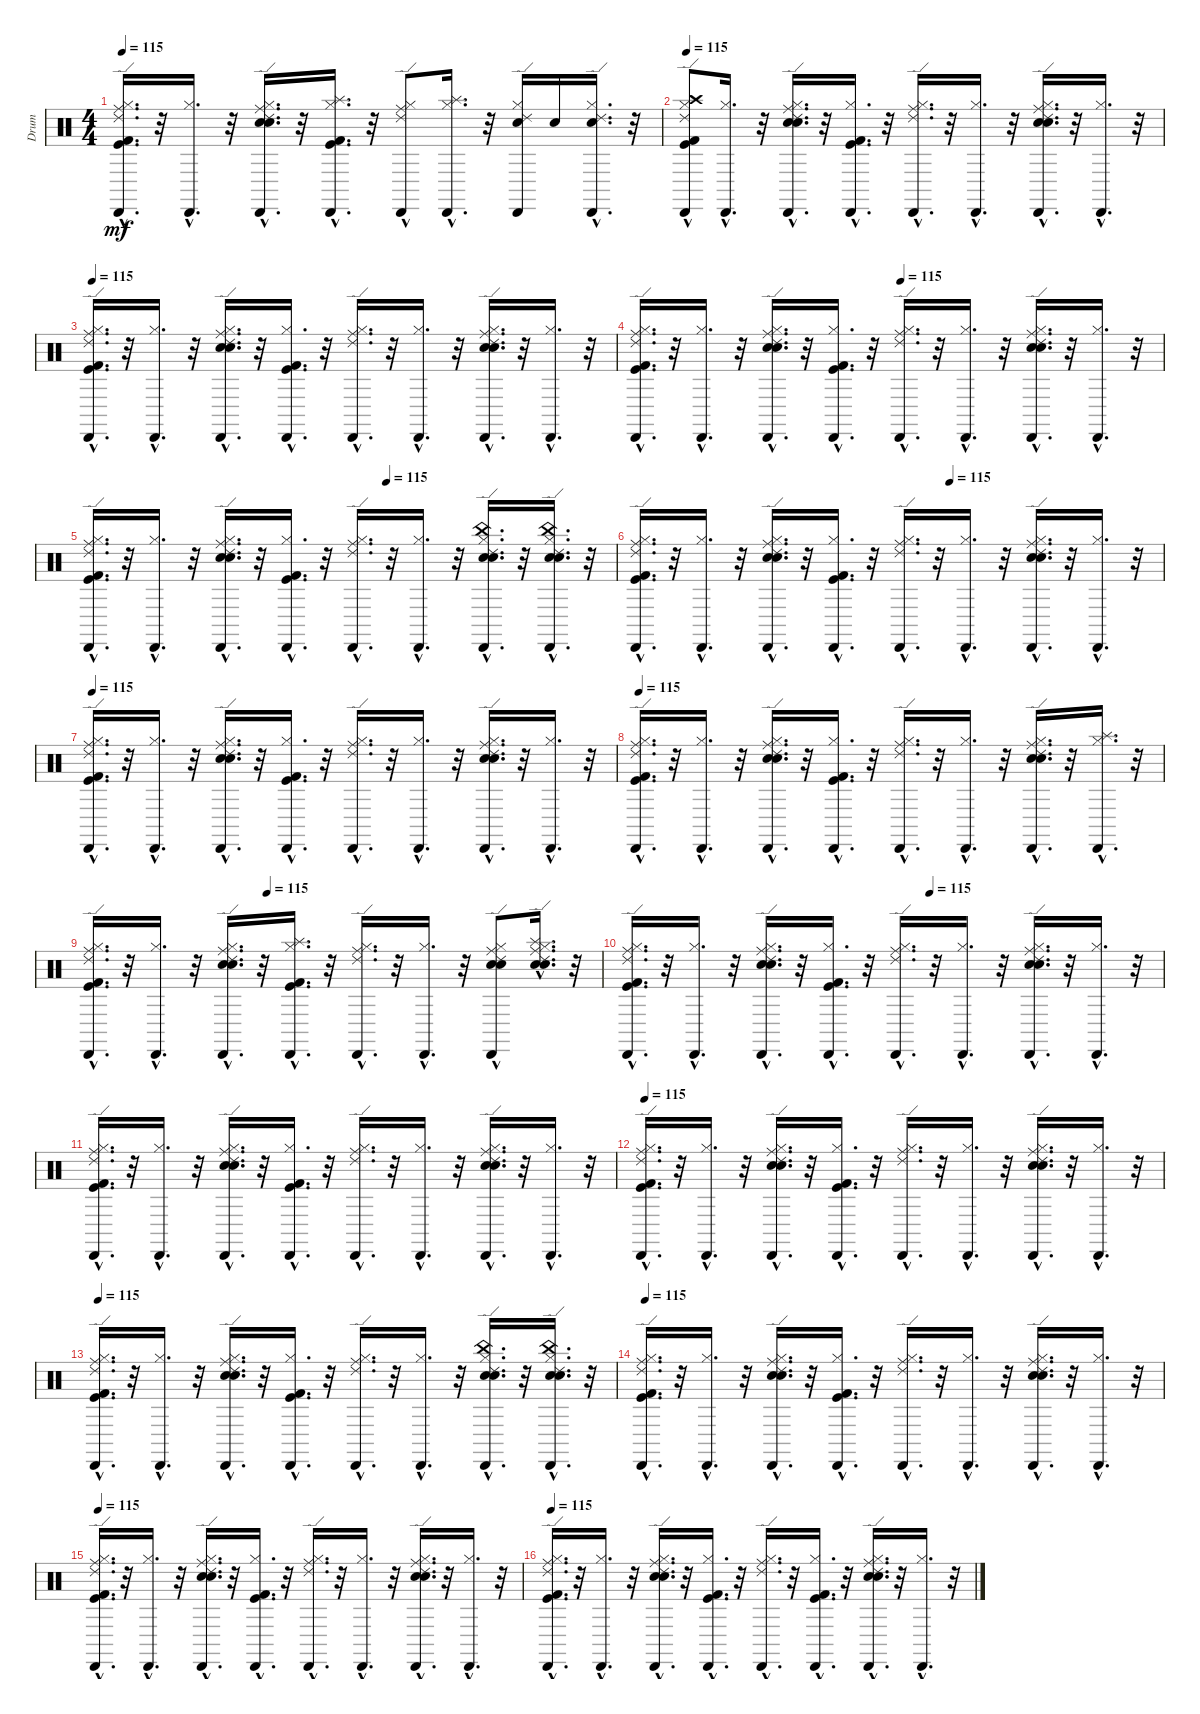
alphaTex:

\track ("Drum" "Drum") {instrument percussion}
\staff {score}
\articulation defaults
\ts (4 4)
\tempo 115
\clef neutral
\ks c
("Kick (hit) 2"{hac} "Cabasa (hit)"{hac} "Ride (middle)"{hac} "Kick (hit)"{hac} "Ride (edge) 2"{hac} "Hi-Hat (closed)"{hac}).16{d dy mf} r.32 ("Hi-Hat (closed)"{hac} "Cabasa (hit)"{hac}).16{d} r.32 ("Ride (edge) 2"{hac} "Electric Snare (hit)"{hac} "Cabasa (hit)"{hac} "Snare (hit) 2"{hac} "Ride (middle)"{hac} "Hi-Hat (closed)"{hac}).16{d} r.32 ("Cabasa (hit)"{hac} "Hi-Hat (closed)"{hac} "Kick (hit) 2"{hac} "Splash (hit)"{hac} "Kick (hit)"{hac}).16{d} r.32 ("Ride (edge) 2"{hac} "Hi-Hat (closed)"{hac} "Ride (middle)" "Cabasa (hit)"{hac}).8 ("Hi-Hat (closed)"{hac} "Cabasa (hit)"{hac} "Splash (hit)"{hac}).16{d} r.32 ("Snare (hit) 2" "Cabasa (hit)" "Ride (edge) 2" "Hi-Hat (closed)").16 "Snare (hit) 2".16 ("Hi-Hat (closed)"{hac} "Snare (hit) 2"{hac} "Ride (edge) 2"{hac} "Cabasa (hit)"{hac}).16{d} r.32 |
\tempo 115
("Cabasa (hit)"{hac} "Kick (hit) 2"{hac} "Kick (hit)"{hac} "Hi-Hat (closed)"{hac} "Crash high (hit)" "Ride (edge) 2"{hac}).8 ("Cabasa (hit)"{hac} "Hi-Hat (closed)"{hac}).16{d} r.32 ("Cabasa (hit)"{hac} "Electric Snare (hit)"{hac} "Snare (hit) 2"{hac} "Hi-Hat (closed)"{hac} "Ride (edge) 2"{hac} "Ride (middle)"{hac}).16{d} r.32 ("Cabasa (hit)"{hac} "Kick (hit) 2"{hac} "Kick (hit)"{hac} "Hi-Hat (closed)"{hac}).16{d} r.32 ("Cabasa (hit)"{hac} "Hi-Hat (closed)"{hac} "Ride (edge) 2"{hac} "Ride (middle)"{hac}).16{d} r.32 ("Cabasa (hit)"{hac} "Hi-Hat (closed)"{hac}).16{d} r.32 ("Cabasa (hit)"{hac} "Hi-Hat (closed)"{hac} "Electric Snare (hit)"{hac} "Snare (hit) 2"{hac} "Ride (edge) 2"{hac} "Ride (middle)"{hac}).16{d} r.32 ("Cabasa (hit)"{hac} "Hi-Hat (closed)"{hac}).16{d} r.32 |
\tempo 115
("Ride (middle)"{hac} "Ride (edge) 2"{hac} "Hi-Hat (closed)"{hac} "Kick (hit)"{hac} "Kick (hit) 2"{hac} "Cabasa (hit)"{hac}).16{d} r.32 ("Hi-Hat (closed)"{hac} "Cabasa (hit)"{hac}).16{d} r.32 ("Ride (middle)"{hac} "Ride (edge) 2"{hac} "Hi-Hat (closed)"{hac} "Snare (hit) 2"{hac} "Electric Snare (hit)"{hac} "Cabasa (hit)"{hac}).16{d} r.32 ("Hi-Hat (closed)"{hac} "Kick (hit)"{hac} "Kick (hit) 2"{hac} "Cabasa (hit)"{hac}).16{d} r.32 ("Ride (middle)"{hac} "Ride (edge) 2"{hac} "Hi-Hat (closed)"{hac} "Cabasa (hit)"{hac}).16{d} r.32 ("Hi-Hat (closed)"{hac} "Cabasa (hit)"{hac}).16{d} r.32 ("Ride (middle)"{hac} "Ride (edge) 2"{hac} "Snare (hit) 2"{hac} "Electric Snare (hit)"{hac} "Hi-Hat (closed)"{hac} "Cabasa (hit)"{hac}).16{d} r.32 ("Hi-Hat (closed)"{hac} "Cabasa (hit)"{hac}).16{d} r.32 |
\tempo (115 0.5)
("Cabasa (hit)"{hac} "Kick (hit) 2"{hac} "Kick (hit)"{hac} "Hi-Hat (closed)"{hac} "Ride (edge) 2"{hac} "Ride (middle)"{hac}).16{d} r.32 ("Cabasa (hit)"{hac} "Hi-Hat (closed)"{hac}).16{d} r.32 ("Cabasa (hit)"{hac} "Electric Snare (hit)"{hac} "Snare (hit) 2"{hac} "Hi-Hat (closed)"{hac} "Ride (edge) 2"{hac} "Ride (middle)"{hac}).16{d} r.32 ("Cabasa (hit)"{hac} "Kick (hit) 2"{hac} "Kick (hit)"{hac} "Hi-Hat (closed)"{hac}).16{d} r.32 ("Cabasa (hit)"{hac} "Hi-Hat (closed)"{hac} "Ride (edge) 2"{hac} "Ride (middle)"{hac}).16{d} r.32 ("Cabasa (hit)"{hac} "Hi-Hat (closed)"{hac}).16{d} r.32 ("Cabasa (hit)"{hac} "Hi-Hat (closed)"{hac} "Electric Snare (hit)"{hac} "Snare (hit) 2"{hac} "Ride (edge) 2"{hac} "Ride (middle)"{hac}).16{d} r.32 ("Cabasa (hit)"{hac} "Hi-Hat (closed)"{hac}).16{d} r.32 |
\tempo (115 0.5625)
("Cabasa (hit)"{hac} "Kick (hit) 2"{hac} "Kick (hit)"{hac} "Hi-Hat (closed)"{hac} "Ride (edge) 2"{hac} "Ride (middle)"{hac}).16{d} r.32 ("Cabasa (hit)"{hac} "Hi-Hat (closed)"{hac}).16{d} r.32 ("Cabasa (hit)"{hac} "Electric Snare (hit)"{hac} "Snare (hit) 2"{hac} "Hi-Hat (closed)"{hac} "Ride (edge) 2"{hac} "Ride (middle)"{hac}).16{d} r.32 ("Cabasa (hit)"{hac} "Kick (hit) 2"{hac} "Kick (hit)"{hac} "Hi-Hat (closed)"{hac}).16{d} r.32 ("Cabasa (hit)"{hac} "Hi-Hat (closed)"{hac} "Ride (edge) 2"{hac} "Ride (middle)"{hac}).16{d} r.32 ("Cabasa (hit)"{hac} "Hi-Hat (closed)"{hac}).16{d} r.32 ("Cabasa (hit)"{hac} "Hi-Hat (closed)"{hac} "Electric Snare (hit)"{hac} "Snare (hit) 2"{hac} "Ride (edge) 2"{hac} "China (hit)"{hac}).16{d} r.32 ("Cabasa (hit)"{hac} "Hi-Hat (closed)"{hac} "China (hit)"{hac} "Ride (edge) 2"{hac} "Electric Snare (hit)"{hac} "Snare (hit) 2"{hac}).16{d} r.32 |
\tempo (115 0.59375)
("Ride (middle)"{hac} "Ride (edge) 2"{hac} "Hi-Hat (closed)"{hac} "Kick (hit)"{hac} "Kick (hit) 2"{hac} "Cabasa (hit)"{hac}).16{d} r.32 ("Hi-Hat (closed)"{hac} "Cabasa (hit)"{hac}).16{d} r.32 ("Ride (middle)"{hac} "Ride (edge) 2"{hac} "Hi-Hat (closed)"{hac} "Snare (hit) 2"{hac} "Electric Snare (hit)"{hac} "Cabasa (hit)"{hac}).16{d} r.32 ("Hi-Hat (closed)"{hac} "Kick (hit)"{hac} "Kick (hit) 2"{hac} "Cabasa (hit)"{hac}).16{d} r.32 ("Ride (middle)"{hac} "Ride (edge) 2"{hac} "Hi-Hat (closed)"{hac} "Cabasa (hit)"{hac}).16{d} r.32 ("Hi-Hat (closed)"{hac} "Cabasa (hit)"{hac}).16{d} r.32 ("Ride (middle)"{hac} "Ride (edge) 2"{hac} "Snare (hit) 2"{hac} "Electric Snare (hit)"{hac} "Hi-Hat (closed)"{hac} "Cabasa (hit)"{hac}).16{d} r.32 ("Hi-Hat (closed)"{hac} "Cabasa (hit)"{hac}).16{d} r.32 |
\tempo 115
("Cabasa (hit)"{hac} "Kick (hit) 2"{hac} "Kick (hit)"{hac} "Hi-Hat (closed)"{hac} "Ride (edge) 2"{hac} "Ride (middle)"{hac}).16{d} r.32 ("Cabasa (hit)"{hac} "Hi-Hat (closed)"{hac}).16{d} r.32 ("Cabasa (hit)"{hac} "Electric Snare (hit)"{hac} "Snare (hit) 2"{hac} "Hi-Hat (closed)"{hac} "Ride (edge) 2"{hac} "Ride (middle)"{hac}).16{d} r.32 ("Cabasa (hit)"{hac} "Kick (hit) 2"{hac} "Kick (hit)"{hac} "Hi-Hat (closed)"{hac}).16{d} r.32 ("Cabasa (hit)"{hac} "Hi-Hat (closed)"{hac} "Ride (edge) 2"{hac} "Ride (middle)"{hac}).16{d} r.32 ("Cabasa (hit)"{hac} "Hi-Hat (closed)"{hac}).16{d} r.32 ("Cabasa (hit)"{hac} "Hi-Hat (closed)"{hac} "Electric Snare (hit)"{hac} "Snare (hit) 2"{hac} "Ride (edge) 2"{hac} "Ride (middle)"{hac}).16{d} r.32 ("Cabasa (hit)"{hac} "Hi-Hat (closed)"{hac}).16{d} r.32 |
\tempo 115
("Ride (middle)"{hac} "Ride (edge) 2"{hac} "Hi-Hat (closed)"{hac} "Kick (hit)"{hac} "Kick (hit) 2"{hac} "Cabasa (hit)"{hac}).16{d} r.32 ("Hi-Hat (closed)"{hac} "Cabasa (hit)"{hac}).16{d} r.32 ("Ride (middle)"{hac} "Ride (edge) 2"{hac} "Hi-Hat (closed)"{hac} "Snare (hit) 2"{hac} "Electric Snare (hit)"{hac} "Cabasa (hit)"{hac}).16{d} r.32 ("Hi-Hat (closed)"{hac} "Kick (hit)"{hac} "Kick (hit) 2"{hac} "Cabasa (hit)"{hac}).16{d} r.32 ("Ride (middle)"{hac} "Ride (edge) 2"{hac} "Hi-Hat (closed)"{hac} "Cabasa (hit)"{hac}).16{d} r.32 ("Hi-Hat (closed)"{hac} "Cabasa (hit)"{hac}).16{d} r.32 ("Ride (middle)"{hac} "Ride (edge) 2"{hac} "Snare (hit) 2"{hac} "Electric Snare (hit)"{hac} "Hi-Hat (closed)"{hac} "Cabasa (hit)"{hac}).16{d} r.32 ("Hi-Hat (closed)"{hac} "Cabasa (hit)"{hac} "Splash (hit)"{hac}).16{d} r.32 |
\tempo (115 0.34375)
("Ride (middle)"{hac} "Kick (hit)"{hac} "Cabasa (hit)"{hac} "Ride (edge) 2"{hac} "Hi-Hat (closed)"{hac} "Kick (hit) 2"{hac}).16{d} r.32 ("Cabasa (hit)"{hac} "Hi-Hat (closed)"{hac}).16{d} r.32 ("Ride (middle)"{hac} "Cabasa (hit)"{hac} "Electric Snare (hit)"{hac} "Hi-Hat (closed)"{hac} "Snare (hit) 2"{hac} "Ride (edge) 2"{hac}).16{d} r.32 ("Splash (hit)"{hac} "Kick (hit) 2"{hac} "Cabasa (hit)"{hac} "Kick (hit)"{hac} "Hi-Hat (closed)"{hac}).16{d} r.32 ("Hi-Hat (closed)"{hac} "Cabasa (hit)"{hac} "Ride (middle)"{hac} "Ride (edge) 2"{hac}).16{d} r.32 ("Hi-Hat (closed)"{hac} "Cabasa (hit)"{hac}).16{d} r.32 ("Hi-Hat (closed)"{hac} "Ride (edge) 2"{hac} "Electric Snare (hit)"{hac} "Ride (middle)"{hac} "Snare (hit) 2"{hac} "Cabasa (hit)"{hac}).8 ("Splash (hit)"{hac} "Electric Snare (hit)"{hac} "Ride (edge) 2"{hac} "Hi-Hat (closed)"{hac} "Ride (middle)"{hac} "Snare (hit) 2"{hac}).16{d} r.32 |
\tempo (115 0.5625)
("Cabasa (hit)"{hac} "Kick (hit) 2"{hac} "Hi-Hat (closed)"{hac} "Ride (middle)"{hac} "Kick (hit)"{hac} "Ride (edge) 2"{hac}).16{d} r.32 ("Cabasa (hit)"{hac} "Hi-Hat (closed)"{hac}).16{d} r.32 ("Ride (middle)"{hac} "Snare (hit) 2"{hac} "Hi-Hat (closed)"{hac} "Electric Snare (hit)"{hac} "Cabasa (hit)"{hac} "Ride (edge) 2"{hac}).16{d} r.32 ("Kick (hit)"{hac} "Hi-Hat (closed)"{hac} "Cabasa (hit)"{hac} "Kick (hit) 2"{hac}).16{d} r.32 ("Ride (middle)"{hac} "Hi-Hat (closed)"{hac} "Cabasa (hit)"{hac} "Ride (edge) 2"{hac}).16{d} r.32 ("Hi-Hat (closed)"{hac} "Cabasa (hit)"{hac}).16{d} r.32 ("Cabasa (hit)"{hac} "Ride (edge) 2"{hac} "Hi-Hat (closed)"{hac} "Electric Snare (hit)"{hac} "Snare (hit) 2"{hac} "Ride (middle)"{hac}).16{d} r.32 ("Cabasa (hit)"{hac} "Hi-Hat (closed)"{hac}).16{d} r.32 |
("Cabasa (hit)"{hac} "Kick (hit)"{hac} "Hi-Hat (closed)"{hac} "Ride (middle)"{hac} "Kick (hit) 2"{hac} "Ride (edge) 2"{hac}).16{d} r.32 ("Hi-Hat (closed)"{hac} "Cabasa (hit)"{hac}).16{d} r.32 ("Ride (middle)"{hac} "Ride (edge) 2"{hac} "Cabasa (hit)"{hac} "Hi-Hat (closed)"{hac} "Snare (hit) 2"{hac} "Electric Snare (hit)"{hac}).16{d} r.32 ("Cabasa (hit)"{hac} "Kick (hit)"{hac} "Kick (hit) 2"{hac} "Hi-Hat (closed)"{hac}).16{d} r.32 ("Hi-Hat (closed)"{hac} "Ride (middle)"{hac} "Ride (edge) 2"{hac} "Cabasa (hit)"{hac}).16{d} r.32 ("Hi-Hat (closed)"{hac} "Cabasa (hit)"{hac}).16{d} r.32 ("Snare (hit) 2"{hac} "Ride (edge) 2"{hac} "Cabasa (hit)"{hac} "Electric Snare (hit)"{hac} "Ride (middle)"{hac} "Hi-Hat (closed)"{hac}).16{d} r.32 ("Hi-Hat (closed)"{hac} "Cabasa (hit)"{hac}).16{d} r.32 |
\tempo 115
("Ride (middle)"{hac} "Cabasa (hit)"{hac} "Hi-Hat (closed)"{hac} "Kick (hit)"{hac} "Ride (edge) 2"{hac} "Kick (hit) 2"{hac}).16{d} r.32 ("Cabasa (hit)"{hac} "Hi-Hat (closed)"{hac}).16{d} r.32 ("Electric Snare (hit)"{hac} "Ride (middle)"{hac} "Hi-Hat (closed)"{hac} "Ride (edge) 2"{hac} "Cabasa (hit)"{hac} "Snare (hit) 2"{hac}).16{d} r.32 ("Kick (hit) 2"{hac} "Cabasa (hit)"{hac} "Hi-Hat (closed)"{hac} "Kick (hit)"{hac}).16{d} r.32 ("Ride (edge) 2"{hac} "Cabasa (hit)"{hac} "Hi-Hat (closed)"{hac} "Ride (middle)"{hac}).16{d} r.32 ("Cabasa (hit)"{hac} "Hi-Hat (closed)"{hac}).16{d} r.32 ("Snare (hit) 2"{hac} "Ride (middle)"{hac} "Electric Snare (hit)"{hac} "Ride (edge) 2"{hac} "Cabasa (hit)"{hac} "Hi-Hat (closed)"{hac}).16{d} r.32 ("Hi-Hat (closed)"{hac} "Cabasa (hit)"{hac}).16{d} r.32 |
\tempo 115
("Ride (edge) 2"{hac} "Kick (hit)"{hac} "Ride (middle)"{hac} "Cabasa (hit)"{hac} "Hi-Hat (closed)"{hac} "Kick (hit) 2"{hac}).16{d} r.32 ("Cabasa (hit)"{hac} "Hi-Hat (closed)"{hac}).16{d} r.32 ("Ride (edge) 2"{hac} "Cabasa (hit)"{hac} "Electric Snare (hit)"{hac} "Hi-Hat (closed)"{hac} "Snare (hit) 2"{hac} "Ride (middle)"{hac}).16{d} r.32 ("Cabasa (hit)"{hac} "Kick (hit)"{hac} "Hi-Hat (closed)"{hac} "Kick (hit) 2"{hac}).16{d} r.32 ("Hi-Hat (closed)"{hac} "Ride (edge) 2"{hac} "Ride (middle)"{hac} "Cabasa (hit)"{hac}).16{d} r.32 ("Hi-Hat (closed)"{hac} "Cabasa (hit)"{hac}).16{d} r.32 ("Ride (edge) 2"{hac} "China (hit)"{hac} "Electric Snare (hit)"{hac} "Cabasa (hit)"{hac} "Snare (hit) 2"{hac} "Hi-Hat (closed)"{hac}).16{d} r.32 ("Electric Snare (hit)"{hac} "Snare (hit) 2"{hac} "Cabasa (hit)"{hac} "Hi-Hat (closed)"{hac} "Ride (edge) 2"{hac} "China (hit)"{hac}).16{d} r.32 |
\tempo 115
("Kick (hit) 2"{hac} "Cabasa (hit)"{hac} "Kick (hit)"{hac} "Ride (middle)"{hac} "Hi-Hat (closed)"{hac} "Ride (edge) 2"{hac}).16{d} r.32 ("Cabasa (hit)"{hac} "Hi-Hat (closed)"{hac}).16{d} r.32 ("Cabasa (hit)"{hac} "Electric Snare (hit)"{hac} "Ride (edge) 2"{hac} "Snare (hit) 2"{hac} "Hi-Hat (closed)"{hac} "Ride (middle)"{hac}).16{d} r.32 ("Kick (hit)"{hac} "Kick (hit) 2"{hac} "Cabasa (hit)"{hac} "Hi-Hat (closed)"{hac}).16{d} r.32 ("Cabasa (hit)"{hac} "Hi-Hat (closed)"{hac} "Ride (middle)"{hac} "Ride (edge) 2"{hac}).16{d} r.32 ("Cabasa (hit)"{hac} "Hi-Hat (closed)"{hac}).16{d} r.32 ("Electric Snare (hit)"{hac} "Snare (hit) 2"{hac} "Hi-Hat (closed)"{hac} "Ride (middle)"{hac} "Ride (edge) 2"{hac} "Cabasa (hit)"{hac}).16{d} r.32 ("Cabasa (hit)"{hac} "Hi-Hat (closed)"{hac}).16{d} r.32 |
\tempo 115
("Cabasa (hit)"{hac} "Ride (edge) 2"{hac} "Ride (middle)"{hac} "Kick (hit)"{hac} "Kick (hit) 2"{hac} "Hi-Hat (closed)"{hac}).16{d} r.32 ("Cabasa (hit)"{hac} "Hi-Hat (closed)"{hac}).16{d} r.32 ("Cabasa (hit)"{hac} "Snare (hit) 2"{hac} "Ride (edge) 2"{hac} "Hi-Hat (closed)"{hac} "Electric Snare (hit)"{hac} "Ride (middle)"{hac}).16{d} r.32 ("Cabasa (hit)"{hac} "Hi-Hat (closed)"{hac} "Kick (hit)"{hac} "Kick (hit) 2"{hac}).16{d} r.32 ("Cabasa (hit)"{hac} "Ride (edge) 2"{hac} "Ride (middle)"{hac} "Hi-Hat (closed)"{hac}).16{d} r.32 ("Cabasa (hit)"{hac} "Hi-Hat (closed)"{hac}).16{d} r.32 ("Cabasa (hit)"{hac} "Hi-Hat (closed)"{hac} "Ride (middle)"{hac} "Snare (hit) 2"{hac} "Electric Snare (hit)"{hac} "Ride (edge) 2"{hac}).16{d} r.32 ("Hi-Hat (closed)"{hac} "Cabasa (hit)"{hac}).16{d} r.32 |
\tempo 115
("Cabasa (hit)"{hac} "Kick (hit) 2"{hac} "Kick (hit)"{hac} "Hi-Hat (closed)"{hac} "Ride (edge) 2"{hac} "Ride (middle)"{hac}).16{d} r.32 ("Cabasa (hit)"{hac} "Hi-Hat (closed)"{hac}).16{d} r.32 ("Cabasa (hit)"{hac} "Electric Snare (hit)"{hac} "Snare (hit) 2"{hac} "Hi-Hat (closed)"{hac} "Ride (edge) 2"{hac} "Ride (middle)"{hac}).16{d} r.32 ("Cabasa (hit)"{hac} "Kick (hit) 2"{hac} "Kick (hit)"{hac} "Hi-Hat (closed)"{hac}).16{d} r.32 ("Cabasa (hit)"{hac} "Hi-Hat (closed)"{hac} "Ride (edge) 2"{hac} "Ride (middle)"{hac}).16{d} r.32 ("Kick (hit) 2"{hac} "Kick (hit)"{hac} "Cabasa (hit)"{hac} "Hi-Hat (closed)"{hac}).16{d} r.32 ("Cabasa (hit)"{hac} "Hi-Hat (closed)"{hac} "Electric Snare (hit)"{hac} "Snare (hit) 2"{hac} "Ride (edge) 2"{hac} "Ride (middle)"{hac}).16{d} r.32 ("Cabasa (hit)"{hac} "Hi-Hat (closed)"{hac}).16{d} r.32
